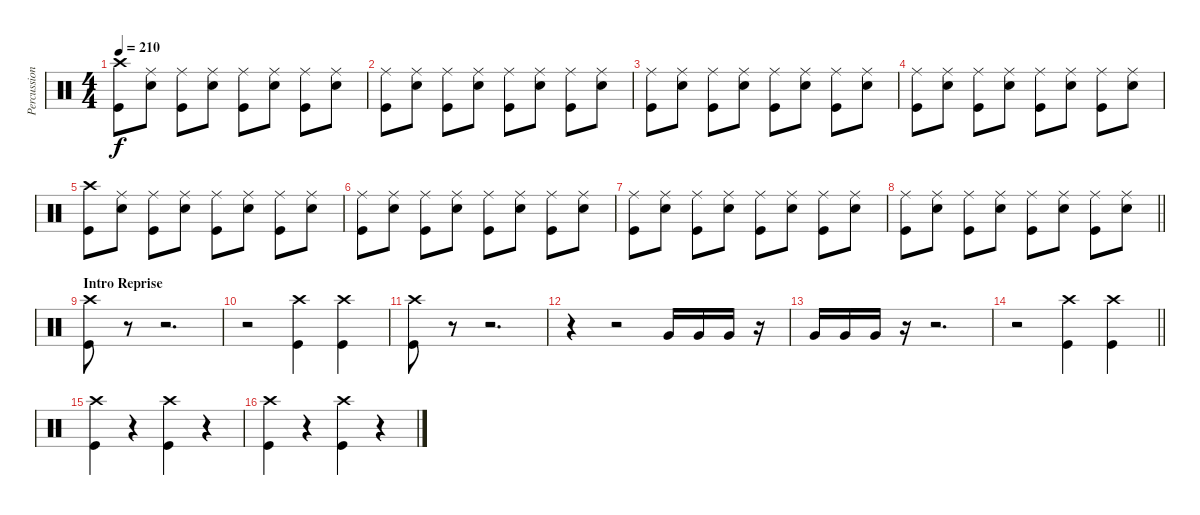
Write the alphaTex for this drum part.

\track ("Percussion" "Percussion") {instrument percussion}
\staff {score}
\articulation defaults
\ts (4 4)
\tempo 210
\clef neutral
\ks c
("Crash high (hit)" "Kick (hit)").8{dy f} ("Ride (middle)" "Snare (hit) 2").8 ("Ride (middle)" "Kick (hit)").8 ("Ride (middle)" "Snare (hit) 2").8 ("Ride (middle)" "Kick (hit)").8 ("Ride (middle)" "Snare (hit) 2").8 ("Ride (middle)" "Kick (hit)").8 ("Ride (middle)" "Snare (hit) 2").8 |
("Ride (middle)" "Kick (hit)").8 ("Ride (middle)" "Snare (hit) 2").8 ("Ride (middle)" "Kick (hit)").8 ("Ride (middle)" "Snare (hit) 2").8 ("Ride (middle)" "Kick (hit)").8 ("Ride (middle)" "Snare (hit) 2").8 ("Ride (middle)" "Kick (hit)").8 ("Ride (middle)" "Snare (hit) 2").8 |
("Ride (middle)" "Kick (hit)").8 ("Ride (middle)" "Snare (hit) 2").8 ("Ride (middle)" "Kick (hit)").8 ("Ride (middle)" "Snare (hit) 2").8 ("Ride (middle)" "Kick (hit)").8 ("Ride (middle)" "Snare (hit) 2").8 ("Ride (middle)" "Kick (hit)").8 ("Ride (middle)" "Snare (hit) 2").8 |
("Ride (middle)" "Kick (hit)").8 ("Ride (middle)" "Snare (hit) 2").8 ("Ride (middle)" "Kick (hit)").8 ("Ride (middle)" "Snare (hit) 2").8 ("Ride (middle)" "Kick (hit)").8 ("Ride (middle)" "Snare (hit) 2").8 ("Ride (middle)" "Kick (hit)").8 ("Ride (middle)" "Snare (hit) 2").8 |
("Crash high (hit)" "Kick (hit)").8 ("Ride (middle)" "Snare (hit) 2").8 ("Ride (middle)" "Kick (hit)").8 ("Ride (middle)" "Snare (hit) 2").8 ("Ride (middle)" "Kick (hit)").8 ("Ride (middle)" "Snare (hit) 2").8 ("Ride (middle)" "Kick (hit)").8 ("Ride (middle)" "Snare (hit) 2").8 |
("Ride (middle)" "Kick (hit)").8 ("Ride (middle)" "Snare (hit) 2").8 ("Ride (middle)" "Kick (hit)").8 ("Ride (middle)" "Snare (hit) 2").8 ("Ride (middle)" "Kick (hit)").8 ("Ride (middle)" "Snare (hit) 2").8 ("Ride (middle)" "Kick (hit)").8 ("Ride (middle)" "Snare (hit) 2").8 |
("Ride (middle)" "Kick (hit)").8 ("Ride (middle)" "Snare (hit) 2").8 ("Ride (middle)" "Kick (hit)").8 ("Ride (middle)" "Snare (hit) 2").8 ("Ride (middle)" "Kick (hit)").8 ("Ride (middle)" "Snare (hit) 2").8 ("Ride (middle)" "Kick (hit)").8 ("Ride (middle)" "Snare (hit) 2").8 |
\barLineRight lightlight
("Ride (middle)" "Kick (hit)").8 ("Ride (middle)" "Snare (hit) 2").8 ("Ride (middle)" "Kick (hit)").8 ("Ride (middle)" "Snare (hit) 2").8 ("Ride (middle)" "Kick (hit)").8 ("Ride (middle)" "Snare (hit) 2").8 ("Ride (middle)" "Kick (hit)").8 ("Ride (middle)" "Snare (hit) 2").8 |
\section ("" "Intro Reprise")
("Crash high (hit)" "Kick (hit)").8 r.8 r.2{d} |
r.2 ("Crash high (hit)" "Kick (hit)").4 ("Crash high (hit)" "Kick (hit)").4 |
("Crash high (hit)" "Kick (hit)").8 r.8 r.2{d} |
r.4 r.2 "Very Low Tom (hit)".16 "Very Low Tom (hit)".16 "Very Low Tom (hit)".16 r.16 |
"Very Low Tom (hit)".16 "Very Low Tom (hit)".16 "Very Low Tom (hit)".16 r.16 r.2{d} |
\barLineRight lightlight
r.2 ("Crash high (hit)" "Kick (hit)").4 ("Crash high (hit)" "Kick (hit)").4 |
\section ("" "")
("Crash high (hit)" "Kick (hit)").4 r.4 ("Crash high (hit)" "Kick (hit)").4 r.4 |
("Crash high (hit)" "Kick (hit)").4 r.4 ("Crash high (hit)" "Kick (hit)").4 r.4
